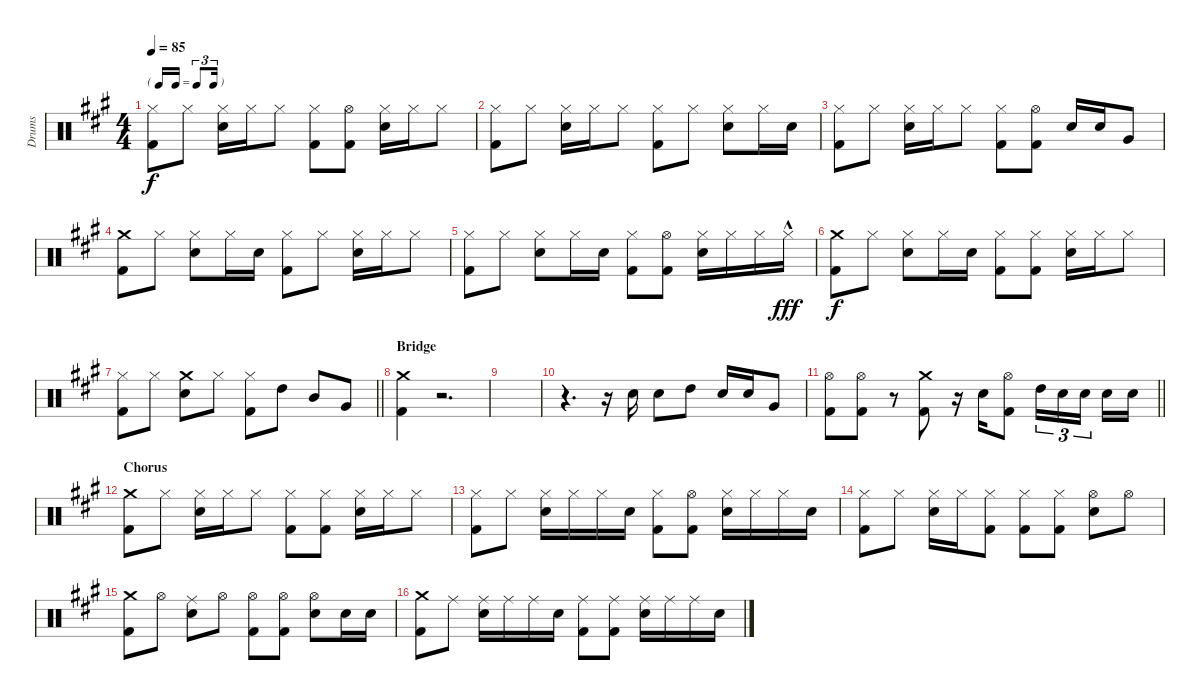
\track ("Drums" "Drums") {instrument percussion}
\staff {score}
\articulation defaults
\ts (4 4)
\tf triplet16th
\tempo 85
\clef neutral
\ks a
("Hi-Hat (closed)" "Kick (hit) 2").8{dy f} "Hi-Hat (closed)".8 ("Hi-Hat (closed)" "Snare (hit) 2").16 "Hi-Hat (closed)".16 "Hi-Hat (closed)".8 ("Hi-Hat (closed)" "Kick (hit) 2").8 ("Hi-Hat (open)" "Kick (hit) 2").8 ("Hi-Hat (closed)" "Snare (hit) 2").16 "Hi-Hat (closed)".16 "Hi-Hat (closed)".8 |
("Hi-Hat (closed)" "Kick (hit) 2").8 "Hi-Hat (closed)".8 ("Hi-Hat (closed)" "Snare (hit) 2").16 "Hi-Hat (closed)".16 "Hi-Hat (closed)".8 ("Hi-Hat (closed)" "Kick (hit) 2").8 "Hi-Hat (closed)".8 ("Hi-Hat (closed)" "Snare (hit) 2").8 "Hi-Hat (closed)".16 "Snare (hit) 2".16 |
("Hi-Hat (closed)" "Kick (hit) 2").8 "Hi-Hat (closed)".8 ("Hi-Hat (closed)" "Snare (hit) 2").16 "Hi-Hat (closed)".16 "Hi-Hat (closed)".8 ("Hi-Hat (closed)" "Kick (hit) 2").8 ("Hi-Hat (open)" "Kick (hit) 2").8 "Snare (hit) 2".16 "Snare (hit) 2".16 "Very Low Tom (hit)".8 |
("Crash medium (hit)" "Kick (hit) 2").8 "Hi-Hat (closed)".8 ("Hi-Hat (closed)" "Snare (hit) 2").8 "Hi-Hat (closed)".16 "Snare (hit) 2".16 ("Hi-Hat (closed)" "Kick (hit) 2").8 "Hi-Hat (closed)".8 ("Hi-Hat (closed)" "Snare (hit) 2").16 "Hi-Hat (closed)".16 "Hi-Hat (closed)".8 |
("Hi-Hat (closed)" "Kick (hit) 2").8 "Hi-Hat (closed)".8 ("Hi-Hat (closed)" "Snare (hit) 2").8 "Hi-Hat (closed)".16 "Snare (hit) 2".16 ("Hi-Hat (closed)" "Kick (hit) 2").8 ("Hi-Hat (open)" "Kick (hit) 2").8 ("Hi-Hat (closed)" "Snare (hit) 2").16 "Hi-Hat (closed)".16 "Hi-Hat (closed)".16 "Hi-Hat (closed)"{hac}.16{dy fff} |
("Crash medium (hit)" "Kick (hit) 2").8{dy f} "Hi-Hat (closed)".8 ("Hi-Hat (closed)" "Snare (hit) 2").8 "Hi-Hat (closed)".16 "Snare (hit) 2".16 ("Hi-Hat (closed)" "Kick (hit) 2").8 ("Hi-Hat (closed)" "Kick (hit) 2").8 ("Hi-Hat (closed)" "Snare (hit) 2").16 "Hi-Hat (closed)".16 "Hi-Hat (closed)".8 |
\barLineRight lightlight
("Hi-Hat (closed)" "Kick (hit) 2").8 "Hi-Hat (closed)".8 ("Crash medium (hit)" "Snare (hit) 2").8 "Hi-Hat (closed)".8 ("Hi-Hat (closed)" "Kick (hit) 2").8 "High Tom (hit)".8 "Mid Tom (hit)".8 "Very Low Tom (hit)".8 |
\section ("" "Bridge")
("Crash medium (hit)" "Kick (hit) 2").4 r.2{d} |
|
r.4{d} r.16 "Snare (hit) 2".16 "Snare (hit) 2".8 "High Tom (hit)".8 "Snare (hit) 2".16 "Snare (hit) 2".16 "Very Low Tom (hit)".8 |
\barLineRight lightlight
("Hi-Hat (open)" "Kick (hit) 2").8 ("Hi-Hat (open)" "Kick (hit) 2").8 r.8 ("Crash medium (hit)" "Kick (hit) 2").8 r.16 "Snare (hit) 2".16 ("Hi-Hat (open)" "Kick (hit) 2").8 "High Tom (hit)".16{tu (3 2)} "Snare (hit) 2".16{tu (3 2)} "Snare (hit) 2".16{tu (3 2) beam splitsecondary} "Snare (hit) 2".16 "Snare (hit) 2".16 |
\section ("" "Chorus")
("Crash medium (hit)" "Kick (hit) 2").8 "Hi-Hat (closed)".8 ("Hi-Hat (closed)" "Snare (hit) 2").16 "Hi-Hat (closed)".16 "Hi-Hat (closed)".8 ("Hi-Hat (closed)" "Kick (hit) 2").8 ("Hi-Hat (closed)" "Kick (hit) 2").8 ("Hi-Hat (closed)" "Snare (hit) 2").16 "Hi-Hat (closed)".16 "Hi-Hat (closed)".8 |
("Hi-Hat (closed)" "Kick (hit) 2").8 "Hi-Hat (closed)".8 ("Hi-Hat (closed)" "Snare (hit) 2").16 "Hi-Hat (closed)".16 "Hi-Hat (closed)".16 "Snare (hit) 2".16 ("Hi-Hat (closed)" "Kick (hit) 2").8 ("Hi-Hat (open)" "Kick (hit) 2").8 ("Hi-Hat (closed)" "Snare (hit) 2").16 "Hi-Hat (closed)".16 "Hi-Hat (closed)".16 "Snare (hit) 2".16 |
("Hi-Hat (closed)" "Kick (hit) 2").8 "Hi-Hat (closed)".8 ("Hi-Hat (closed)" "Snare (hit) 2").16 "Hi-Hat (closed)".16 ("Hi-Hat (closed)" "Kick (hit) 2").8 ("Hi-Hat (closed)" "Kick (hit) 2").8 ("Hi-Hat (closed)" "Kick (hit) 2").8 ("Hi-Hat (open)" "Snare (hit) 2").8 "Hi-Hat (open)".8 |
("Crash medium (hit)" "Kick (hit) 2").8 "Hi-Hat (open)".8 ("Ride (middle)" "Snare (hit) 2").8 "Hi-Hat (open)".8 ("Hi-Hat (open)" "Kick (hit) 2").8 ("Hi-Hat (open)" "Kick (hit) 2").8 ("Hi-Hat (open)" "Snare (hit) 2").8 "Snare (hit) 2".16 "Snare (hit) 2".16 |
("Crash medium (hit)" "Kick (hit) 2").8 "Ride (middle)".8 ("Ride (middle)" "Snare (hit) 2").16 "Ride (middle)".16 "Ride (middle)".16 "Snare (hit) 2".16 ("Ride (middle)" "Kick (hit) 2").8 ("Ride (middle)" "Kick (hit) 2").8 ("Ride (middle)" "Snare (hit) 2").16 "Ride (middle)".16 "Ride (middle)".16 "Snare (hit) 2".16
